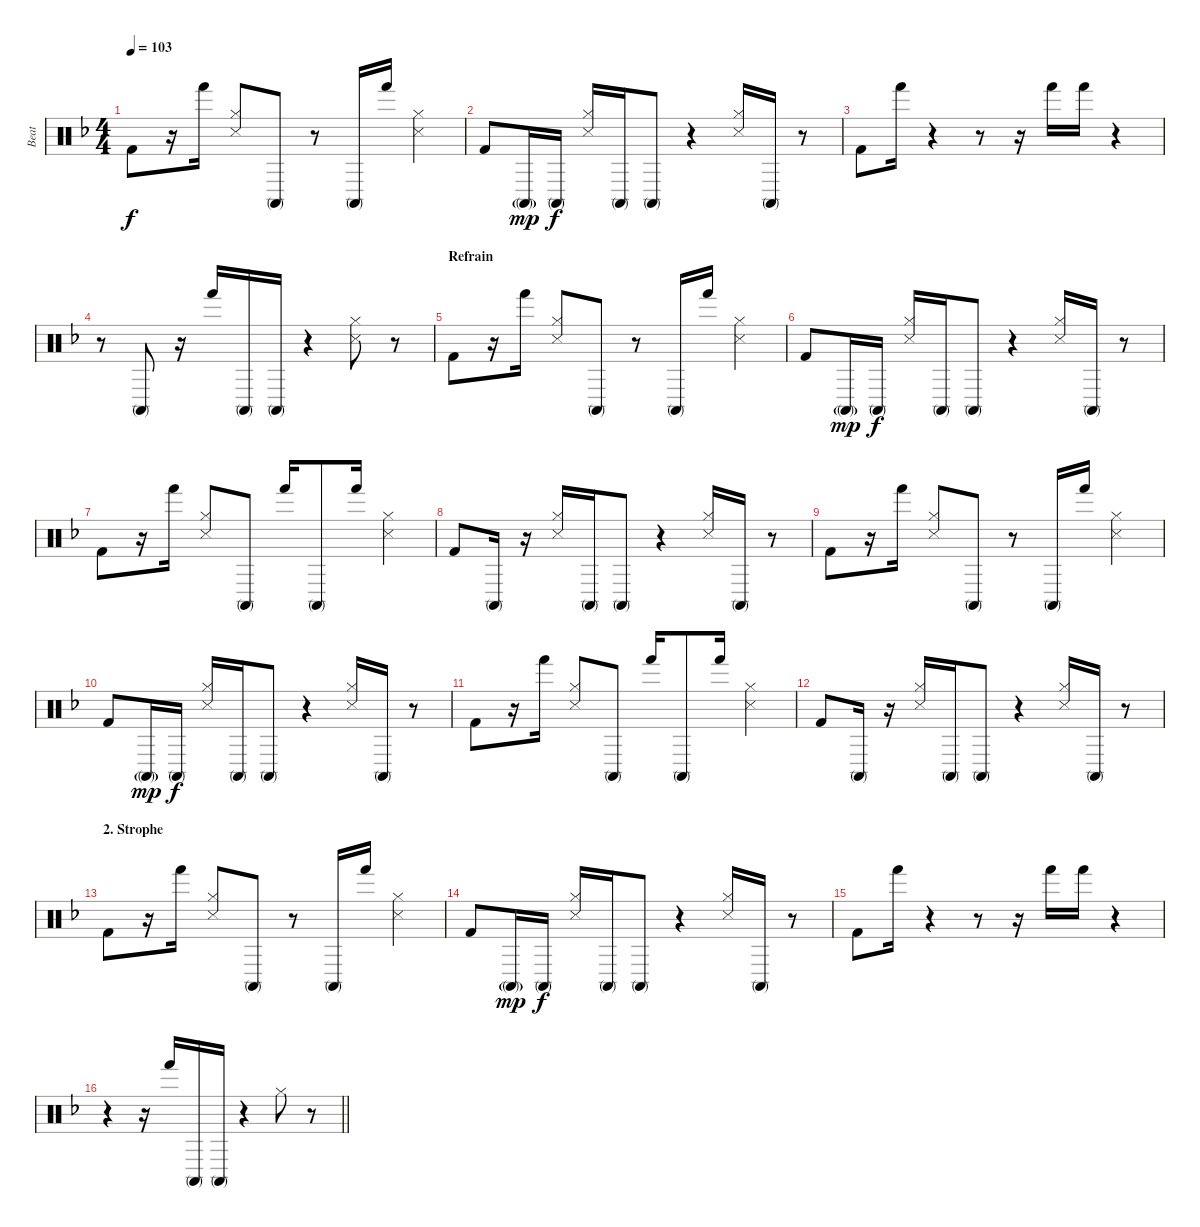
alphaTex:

\track ("Beat" "Beat") {instrument percussion}
\staff {score}
\articulation defaults
\ts (4 4)
\tempo 103
\clef neutral
\ks dminor "Kick (hit) 2".8{dy f}
r.16 "Hand (hit)".16 ("Hi-Hat (closed)" "Snare (side stick) 3").8 "Conga high (mute)".8 r.8 "Conga high (mute)".16 "Hand (hit)".16 ("Hi-Hat (closed)" "Snare (side stick) 3").4 |
"Kick (hit) 2".8 "Conga high (mute)"{g}.16{dy mp} "Conga high (mute)".16{dy f} ("Hi-Hat (closed)" "Snare (side stick) 3").16 "Conga high (mute)".16 "Conga high (mute)".8 r.4 ("Hi-Hat (closed)" "Snare (side stick) 3").16 "Conga high (mute)".16 r.8 |
"Kick (hit) 2".8 "Hand (hit)".16 r.4 r.8 r.16 "Hand (hit)".16 "Hand (hit)".16 r.4 |
r.8 "Conga high (mute)".8 r.16 "Hand (hit)".16 "Conga high (mute)".16 "Conga high (mute)".16 r.4 ("Hi-Hat (closed)" "Snare (side stick) 3").8 r.8 |
\section ("" "Refrain")
"Kick (hit) 2".8 r.16 "Hand (hit)".16 ("Hi-Hat (closed)" "Snare (side stick) 3").8 "Conga high (mute)".8 r.8 "Conga high (mute)".16 "Hand (hit)".16 ("Hi-Hat (closed)" "Snare (side stick) 3").4 |
"Kick (hit) 2".8 "Conga high (mute)"{g}.16{dy mp} "Conga high (mute)".16{dy f} ("Hi-Hat (closed)" "Snare (side stick) 3").16 "Conga high (mute)".16 "Conga high (mute)".8 r.4 ("Hi-Hat (closed)" "Snare (side stick) 3").16 "Conga high (mute)".16 r.8 |
"Kick (hit) 2".8 r.16 "Hand (hit)".16 ("Hi-Hat (closed)" "Snare (side stick) 3").8 "Conga high (mute)".8 "Hand (hit)".16 "Conga high (mute)".8 "Hand (hit)".16 ("Hi-Hat (closed)" "Snare (side stick) 3").4 |
"Kick (hit) 2".8 "Conga high (mute)".16 r.16 ("Hi-Hat (closed)" "Snare (side stick) 3").16 "Conga high (mute)".16 "Conga high (mute)".8 r.4 ("Hi-Hat (closed)" "Snare (side stick) 3").16 "Conga high (mute)".16 r.8 |
"Kick (hit) 2".8 r.16 "Hand (hit)".16 ("Hi-Hat (closed)" "Snare (side stick) 3").8 "Conga high (mute)".8 r.8 "Conga high (mute)".16 "Hand (hit)".16 ("Hi-Hat (closed)" "Snare (side stick) 3").4 |
"Kick (hit) 2".8 "Conga high (mute)"{g}.16{dy mp} "Conga high (mute)".16{dy f} ("Hi-Hat (closed)" "Snare (side stick) 3").16 "Conga high (mute)".16 "Conga high (mute)".8 r.4 ("Hi-Hat (closed)" "Snare (side stick) 3").16 "Conga high (mute)".16 r.8 |
"Kick (hit) 2".8 r.16 "Hand (hit)".16 ("Hi-Hat (closed)" "Snare (side stick) 3").8 "Conga high (mute)".8 "Hand (hit)".16 "Conga high (mute)".8 "Hand (hit)".16 ("Hi-Hat (closed)" "Snare (side stick) 3").4 |
"Kick (hit) 2".8 "Conga high (mute)".16 r.16 ("Hi-Hat (closed)" "Snare (side stick) 3").16 "Conga high (mute)".16 "Conga high (mute)".8 r.4 ("Hi-Hat (closed)" "Snare (side stick) 3").16 "Conga high (mute)".16 r.8 |
\section ("" "2. Strophe")
"Kick (hit) 2".8 r.16 "Hand (hit)".16 ("Hi-Hat (closed)" "Snare (side stick) 3").8 "Conga high (mute)".8 r.8 "Conga high (mute)".16 "Hand (hit)".16 ("Hi-Hat (closed)" "Snare (side stick) 3").4 |
"Kick (hit) 2".8 "Conga high (mute)"{g}.16{dy mp} "Conga high (mute)".16{dy f} ("Hi-Hat (closed)" "Snare (side stick) 3").16 "Conga high (mute)".16 "Conga high (mute)".8 r.4 ("Hi-Hat (closed)" "Snare (side stick) 3").16 "Conga high (mute)".16 r.8 |
"Kick (hit) 2".8 "Hand (hit)".16 r.4 r.8 r.16 "Hand (hit)".16 "Hand (hit)".16 r.4 |
\barLineRight lightlight
r.4 r.16 "Hand (hit)".16 "Conga high (mute)".16 "Conga high (mute)".16 r.4 "Hi-Hat (closed)".8 r.8
